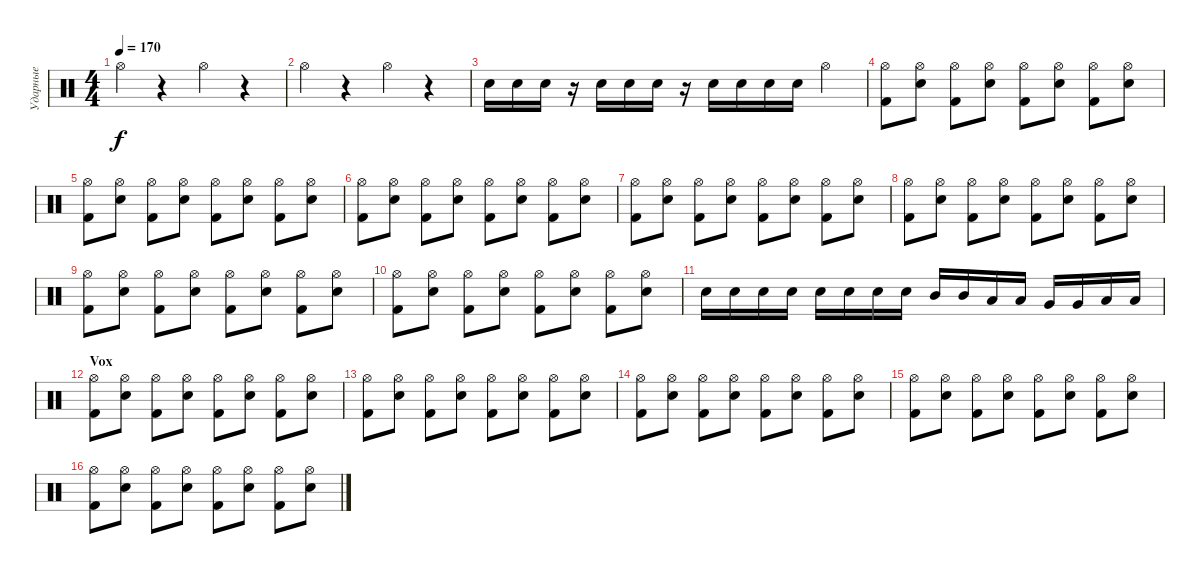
\track ("Ударные" "Ударные") {instrument percussion}
\staff {score}
\articulation defaults
\ts (4 4)
\tempo 170
\clef neutral
\ks c "Hi-Hat (open)".4{dy f}
r.4 "Hi-Hat (open)".4 r.4 |
"Hi-Hat (open)".4 r.4 "Hi-Hat (open)".4 r.4 |
"Snare (hit) 2".16 "Snare (hit) 2".16 "Snare (hit) 2".16 r.16 "Snare (hit) 2".16 "Snare (hit) 2".16 "Snare (hit) 2".16 r.16 "Snare (hit) 2".16 "Snare (hit) 2".16 "Snare (hit) 2".16 "Snare (hit) 2".16 "Hi-Hat (open)".4 |
("Hi-Hat (open)" "Kick (hit) 2").8 ("Hi-Hat (open)" "Snare (hit) 2").8 ("Hi-Hat (open)" "Kick (hit) 2").8 ("Hi-Hat (open)" "Snare (hit) 2").8 ("Hi-Hat (open)" "Kick (hit) 2").8 ("Hi-Hat (open)" "Snare (hit) 2").8 ("Hi-Hat (open)" "Kick (hit) 2").8 ("Hi-Hat (open)" "Snare (hit) 2").8 |
("Hi-Hat (open)" "Kick (hit) 2").8 ("Hi-Hat (open)" "Snare (hit) 2").8 ("Hi-Hat (open)" "Kick (hit) 2").8 ("Hi-Hat (open)" "Snare (hit) 2").8 ("Hi-Hat (open)" "Kick (hit) 2").8 ("Hi-Hat (open)" "Snare (hit) 2").8 ("Hi-Hat (open)" "Kick (hit) 2").8 ("Hi-Hat (open)" "Snare (hit) 2").8 |
("Hi-Hat (open)" "Kick (hit) 2").8 ("Hi-Hat (open)" "Snare (hit) 2").8 ("Hi-Hat (open)" "Kick (hit) 2").8 ("Hi-Hat (open)" "Snare (hit) 2").8 ("Hi-Hat (open)" "Kick (hit) 2").8 ("Hi-Hat (open)" "Snare (hit) 2").8 ("Hi-Hat (open)" "Kick (hit) 2").8 ("Hi-Hat (open)" "Snare (hit) 2").8 |
("Hi-Hat (open)" "Kick (hit) 2").8 ("Hi-Hat (open)" "Snare (hit) 2").8 ("Hi-Hat (open)" "Kick (hit) 2").8 ("Hi-Hat (open)" "Snare (hit) 2").8 ("Hi-Hat (open)" "Kick (hit) 2").8 ("Hi-Hat (open)" "Snare (hit) 2").8 ("Hi-Hat (open)" "Kick (hit) 2").8 ("Hi-Hat (open)" "Snare (hit) 2").8 |
("Hi-Hat (open)" "Kick (hit) 2").8 ("Hi-Hat (open)" "Snare (hit) 2").8 ("Hi-Hat (open)" "Kick (hit) 2").8 ("Hi-Hat (open)" "Snare (hit) 2").8 ("Hi-Hat (open)" "Kick (hit) 2").8 ("Hi-Hat (open)" "Snare (hit) 2").8 ("Hi-Hat (open)" "Kick (hit) 2").8 ("Hi-Hat (open)" "Snare (hit) 2").8 |
("Hi-Hat (open)" "Kick (hit) 2").8 ("Hi-Hat (open)" "Snare (hit) 2").8 ("Hi-Hat (open)" "Kick (hit) 2").8 ("Hi-Hat (open)" "Snare (hit) 2").8 ("Hi-Hat (open)" "Kick (hit) 2").8 ("Hi-Hat (open)" "Snare (hit) 2").8 ("Hi-Hat (open)" "Kick (hit) 2").8 ("Hi-Hat (open)" "Snare (hit) 2").8 |
("Hi-Hat (open)" "Kick (hit) 2").8 ("Hi-Hat (open)" "Snare (hit) 2").8 ("Hi-Hat (open)" "Kick (hit) 2").8 ("Hi-Hat (open)" "Snare (hit) 2").8 ("Hi-Hat (open)" "Kick (hit) 2").8 ("Hi-Hat (open)" "Snare (hit) 2").8 ("Hi-Hat (open)" "Kick (hit) 2").8 ("Hi-Hat (open)" "Snare (hit) 2").8 |
"Snare (hit) 2".16 "Snare (hit) 2".16 "Snare (hit) 2".16 "Snare (hit) 2".16 "Snare (hit) 2".16 "Snare (hit) 2".16 "Snare (hit) 2".16 "Snare (hit) 2".16 "Mid Tom (hit)".16 "Mid Tom (hit)".16 "Low Tom (hit)".16 "Low Tom (hit)".16 "Very Low Tom (hit)".16 "Very Low Tom (hit)".16 "Low Floor Tom (hit)".16 "Low Floor Tom (hit)".16 |
\section ("" "Vox")
("Hi-Hat (open)" "Kick (hit) 2").8 ("Hi-Hat (open)" "Snare (hit) 2").8 ("Hi-Hat (open)" "Kick (hit) 2").8 ("Hi-Hat (open)" "Snare (hit) 2").8 ("Hi-Hat (open)" "Kick (hit) 2").8 ("Hi-Hat (open)" "Snare (hit) 2").8 ("Hi-Hat (open)" "Kick (hit) 2").8 ("Hi-Hat (open)" "Snare (hit) 2").8 |
("Hi-Hat (open)" "Kick (hit) 2").8 ("Hi-Hat (open)" "Snare (hit) 2").8 ("Hi-Hat (open)" "Kick (hit) 2").8 ("Hi-Hat (open)" "Snare (hit) 2").8 ("Hi-Hat (open)" "Kick (hit) 2").8 ("Hi-Hat (open)" "Snare (hit) 2").8 ("Hi-Hat (open)" "Kick (hit) 2").8 ("Hi-Hat (open)" "Snare (hit) 2").8 |
("Hi-Hat (open)" "Kick (hit) 2").8 ("Hi-Hat (open)" "Snare (hit) 2").8 ("Hi-Hat (open)" "Kick (hit) 2").8 ("Hi-Hat (open)" "Snare (hit) 2").8 ("Hi-Hat (open)" "Kick (hit) 2").8 ("Hi-Hat (open)" "Snare (hit) 2").8 ("Hi-Hat (open)" "Kick (hit) 2").8 ("Hi-Hat (open)" "Snare (hit) 2").8 |
("Hi-Hat (open)" "Kick (hit) 2").8 ("Hi-Hat (open)" "Snare (hit) 2").8 ("Hi-Hat (open)" "Kick (hit) 2").8 ("Hi-Hat (open)" "Snare (hit) 2").8 ("Hi-Hat (open)" "Kick (hit) 2").8 ("Hi-Hat (open)" "Snare (hit) 2").8 ("Hi-Hat (open)" "Kick (hit) 2").8 ("Hi-Hat (open)" "Snare (hit) 2").8 |
("Hi-Hat (open)" "Kick (hit) 2").8 ("Hi-Hat (open)" "Snare (hit) 2").8 ("Hi-Hat (open)" "Kick (hit) 2").8 ("Hi-Hat (open)" "Snare (hit) 2").8 ("Hi-Hat (open)" "Kick (hit) 2").8 ("Hi-Hat (open)" "Snare (hit) 2").8 ("Hi-Hat (open)" "Kick (hit) 2").8 ("Hi-Hat (open)" "Snare (hit) 2").8
